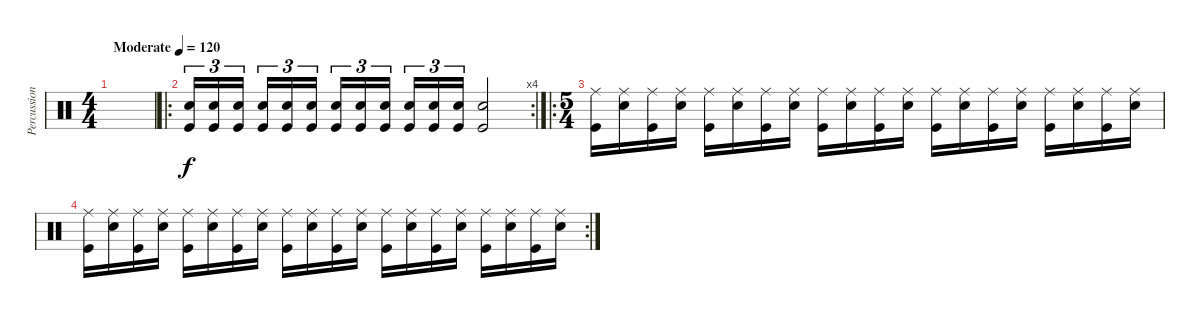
\track ("Percussion" "Percussion") {instrument percussion}
\staff {score}
\articulation defaults
\ts (4 4)
\tempo (120 "Moderate")
\clef neutral
\ks c
|
\ro
\rc 4
("Snare (hit) 2" "Kick (hit)").16{tu (3 2)} ("Snare (hit) 2" "Kick (hit)").16{tu (3 2)} ("Snare (hit) 2" "Kick (hit)").16{tu (3 2) beam splitsecondary} ("Snare (hit) 2" "Kick (hit)").16{tu (3 2)} ("Snare (hit) 2" "Kick (hit)").16{tu (3 2)} ("Snare (hit) 2" "Kick (hit)").16{tu (3 2)} ("Snare (hit) 2" "Kick (hit)").16{tu (3 2)} ("Snare (hit) 2" "Kick (hit)").16{tu (3 2)} ("Snare (hit) 2" "Kick (hit)").16{tu (3 2) beam splitsecondary} ("Snare (hit) 2" "Kick (hit)").16{tu (3 2)} ("Snare (hit) 2" "Kick (hit)").16{tu (3 2)} ("Snare (hit) 2" "Kick (hit)").16{tu (3 2)} ("Snare (hit) 2" "Kick (hit)").2 |
\ro
\ts (5 4)
("Ride (middle)" "Kick (hit)").16 ("Ride (middle)" "Snare (hit) 2").16 ("Ride (middle)" "Kick (hit)").16 ("Ride (middle)" "Snare (hit) 2").16 ("Ride (middle)" "Kick (hit)").16 ("Ride (middle)" "Snare (hit) 2").16 ("Ride (middle)" "Kick (hit)").16 ("Ride (middle)" "Snare (hit) 2").16 ("Ride (middle)" "Kick (hit)").16 ("Ride (middle)" "Snare (hit) 2").16 ("Ride (middle)" "Kick (hit)").16 ("Ride (middle)" "Snare (hit) 2").16 ("Ride (middle)" "Kick (hit)").16 ("Ride (middle)" "Snare (hit) 2").16 ("Ride (middle)" "Kick (hit)").16 ("Ride (middle)" "Snare (hit) 2").16 ("Ride (middle)" "Kick (hit)").16 ("Ride (middle)" "Snare (hit) 2").16 ("Ride (middle)" "Kick (hit)").16 ("Ride (middle)" "Snare (hit) 2").16 |
\rc 2
("Ride (middle)" "Kick (hit)").16 ("Ride (middle)" "Snare (hit) 2").16 ("Ride (middle)" "Kick (hit)").16 ("Ride (middle)" "Snare (hit) 2").16 ("Ride (middle)" "Kick (hit)").16 ("Ride (middle)" "Snare (hit) 2").16 ("Ride (middle)" "Kick (hit)").16 ("Ride (middle)" "Snare (hit) 2").16 ("Ride (middle)" "Kick (hit)").16 ("Ride (middle)" "Snare (hit) 2").16 ("Ride (middle)" "Kick (hit)").16 ("Ride (middle)" "Snare (hit) 2").16 ("Ride (middle)" "Kick (hit)").16 ("Ride (middle)" "Snare (hit) 2").16 ("Ride (middle)" "Kick (hit)").16 ("Ride (middle)" "Snare (hit) 2").16 ("Ride (middle)" "Kick (hit)").16 ("Ride (middle)" "Snare (hit) 2").16 ("Ride (middle)" "Kick (hit)").16 ("Ride (middle)" "Snare (hit) 2").16
